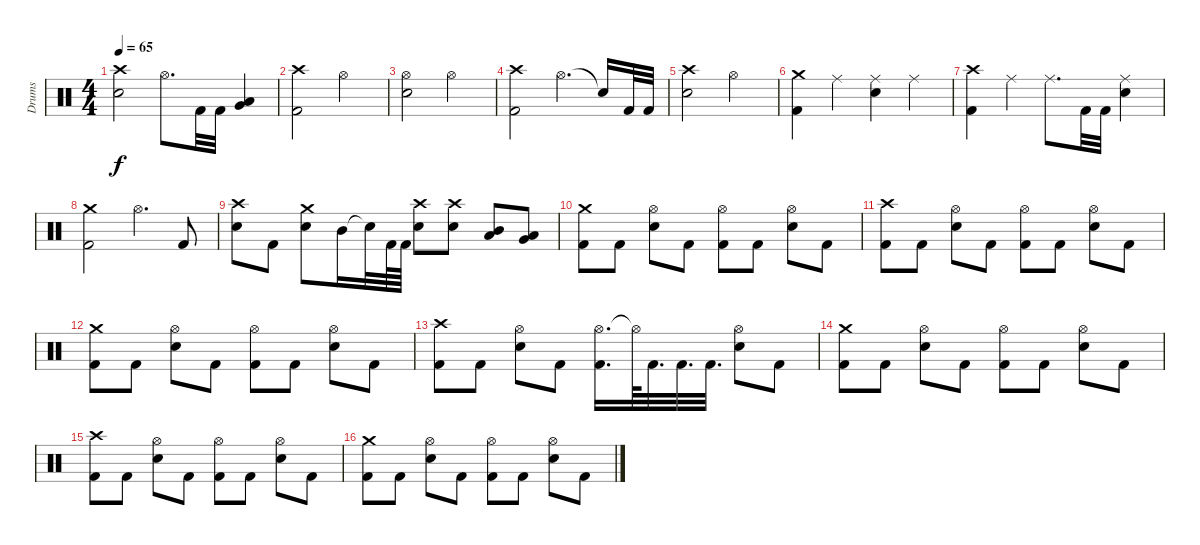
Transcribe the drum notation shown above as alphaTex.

\track ("Drums" "Drums") {instrument percussion}
\staff {score}
\articulation defaults
\ts (4 4)
\tempo 65
\clef neutral
\ks c
("Crash high (hit)" "Snare (hit) 2").2{dy f} "Hi-Hat (open)".8{d} "Kick (hit) 2".32 "Kick (hit) 2".32 ("Very Low Tom (hit)" "Low Tom (hit)").4 |
("Crash high (hit)" "Kick (hit) 2").2 "Hi-Hat (open)".2 |
("Hi-Hat (open)" "Snare (hit) 2").2 "Hi-Hat (open)".2 |
("Crash high (hit)" "Kick (hit) 2").2 "Hi-Hat (open)".4{d} "Snare (hit)"{t}.16 "Kick (hit) 2".32 "Kick (hit) 2".32 |
("Crash high (hit)" "Snare (hit) 2").2 "Hi-Hat (open)".2 |
("Crash medium (hit)" "Kick (hit) 2").4 "Ride (middle)".4 ("Ride (middle)" "Snare (hit) 2").4 "Ride (middle)".4 |
("Crash high (hit)" "Kick (hit) 2").4 "Ride (middle)".4 "Ride (middle)".8{d} "Kick (hit) 2".32 "Kick (hit) 2".32 ("Ride (middle)" "Snare (hit) 2").4 |
("Crash medium (hit)" "Kick (hit) 2").2 "Hi-Hat (open)".4{d} "Kick (hit) 2".8 |
("Crash high (hit)" "Snare (hit) 2").8 "Kick (hit) 2".8 ("Crash medium (hit)" "Snare (hit) 2").8 "Mid Tom (hit)".16 "Snare (hit)"{t}.32 "Kick (hit) 2".64 "Kick (hit) 2".64 ("Crash high (hit)" "Snare (hit) 2").8 ("Crash high (hit)" "Snare (hit) 2").8 ("Mid Tom (hit)" "Low Tom (hit)").8 ("Low Tom (hit)" "Very Low Tom (hit)").8 |
("Crash medium (hit)" "Kick (hit) 2").8 "Kick (hit) 2".8 ("Hi-Hat (open)" "Snare (hit) 2").8 "Kick (hit) 2".8 ("Hi-Hat (open)" "Kick (hit) 2").8 "Kick (hit) 2".8 ("Hi-Hat (open)" "Snare (hit) 2").8 "Kick (hit) 2".8 |
("Crash high (hit)" "Kick (hit) 2").8 "Kick (hit) 2".8 ("Hi-Hat (open)" "Snare (hit) 2").8 "Kick (hit) 2".8 ("Hi-Hat (open)" "Kick (hit) 2").8 "Kick (hit) 2".8 ("Hi-Hat (open)" "Snare (hit) 2").8 "Kick (hit) 2".8 |
("Crash medium (hit)" "Kick (hit) 2").8 "Kick (hit) 2".8 ("Hi-Hat (open)" "Snare (hit) 2").8 "Kick (hit) 2".8 ("Hi-Hat (open)" "Kick (hit) 2").8 "Kick (hit) 2".8 ("Hi-Hat (open)" "Snare (hit) 2").8 "Kick (hit) 2".8 |
("Crash high (hit)" "Kick (hit) 2").8 "Kick (hit) 2".8 ("Hi-Hat (open)" "Snare (hit) 2").8 "Kick (hit) 2".8 ("Hi-Hat (open)" "Kick (hit) 2").16{d} "Hi-Hat (open)"{t}.64 "Kick (hit) 2".32{d} "Kick (hit) 2".32{d} "Kick (hit) 2".32{d} ("Hi-Hat (open)" "Snare (hit) 2").8 "Kick (hit) 2".8 |
("Crash medium (hit)" "Kick (hit) 2").8 "Kick (hit) 2".8 ("Hi-Hat (open)" "Snare (hit) 2").8 "Kick (hit) 2".8 ("Hi-Hat (open)" "Kick (hit) 2").8 "Kick (hit) 2".8 ("Hi-Hat (open)" "Snare (hit) 2").8 "Kick (hit) 2".8 |
("Crash high (hit)" "Kick (hit) 2").8 "Kick (hit) 2".8 ("Hi-Hat (open)" "Snare (hit) 2").8 "Kick (hit) 2".8 ("Hi-Hat (open)" "Kick (hit) 2").8 "Kick (hit) 2".8 ("Hi-Hat (open)" "Snare (hit) 2").8 "Kick (hit) 2".8 |
("Crash medium (hit)" "Kick (hit) 2").8 "Kick (hit) 2".8 ("Hi-Hat (open)" "Snare (hit) 2").8 "Kick (hit) 2".8 ("Hi-Hat (open)" "Kick (hit) 2").8 "Kick (hit) 2".8 ("Hi-Hat (open)" "Snare (hit) 2").8 "Kick (hit) 2".8
